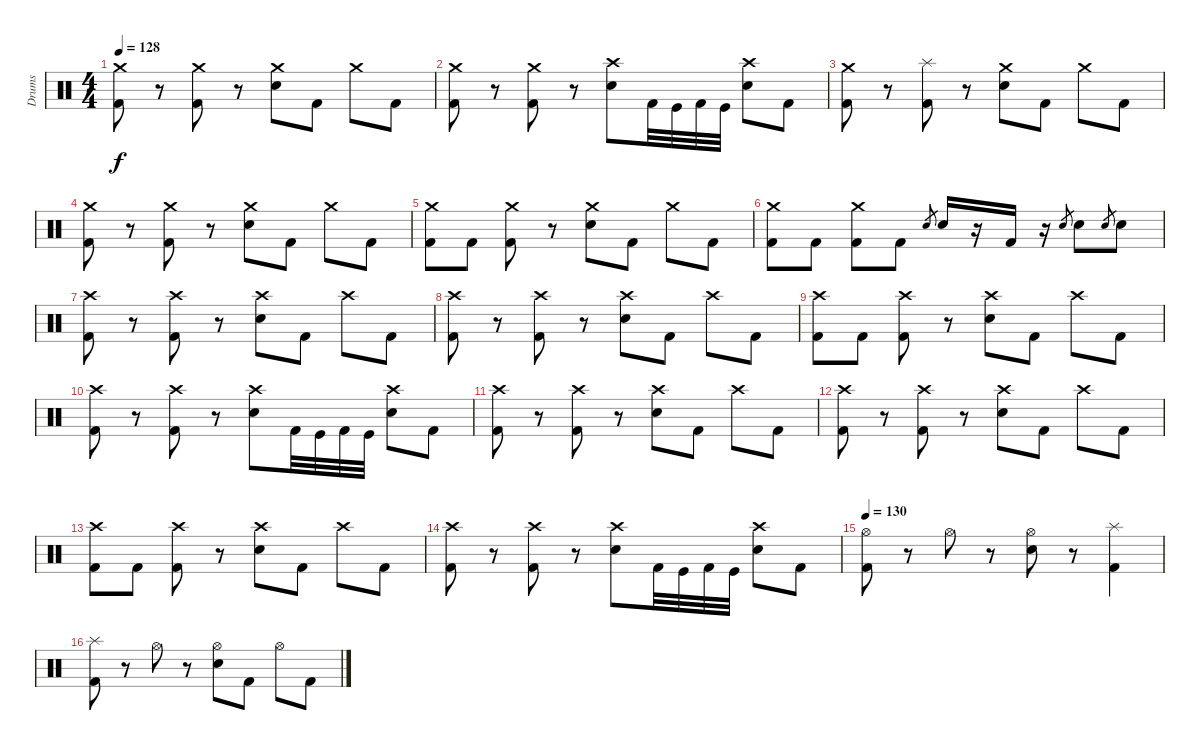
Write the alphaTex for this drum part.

\track ("Drums" "Drums") {instrument percussion}
\staff {score}
\articulation defaults
\ts (4 4)
\tempo 128
\clef neutral
\ks c
("Crash medium (hit)" "Kick (hit) 2").8{dy f} r.8 ("Crash medium (hit)" "Kick (hit) 2").8 r.8 ("Crash medium (hit)" "Electric Snare (hit)").8 "Kick (hit) 2".8 "Crash medium (hit)".8 "Kick (hit) 2".8 |
("Crash medium (hit)" "Kick (hit) 2").8 r.8 ("Crash medium (hit)" "Kick (hit) 2").8 r.8 ("Crash high (hit)" "Electric Snare (hit)").8 "Kick (hit) 2".32 "Kick (hit)".32 "Kick (hit) 2".32 "Kick (hit)".32 ("Crash high (hit)" "Electric Snare (hit)").8 "Kick (hit) 2".8 |
("Crash medium (hit)" "Kick (hit) 2").8 r.8 ("Splash (hit)" "Kick (hit) 2").8 r.8 ("Crash medium (hit)" "Electric Snare (hit)").8 "Kick (hit) 2".8 "Crash medium (hit)".8 "Kick (hit) 2".8 |
("Crash medium (hit)" "Kick (hit) 2").8 r.8 ("Crash medium (hit)" "Kick (hit) 2").8 r.8 ("Crash medium (hit)" "Electric Snare (hit)").8 "Kick (hit) 2".8 "Crash medium (hit)".8 "Kick (hit) 2".8 |
("Crash medium (hit)" "Kick (hit) 2").8 "Kick (hit) 2".8 ("Crash medium (hit)" "Kick (hit) 2").8 r.8 ("Crash medium (hit)" "Electric Snare (hit)").8 "Kick (hit) 2".8 "Crash medium (hit)".8 "Kick (hit) 2".8 |
("Crash medium (hit)" "Kick (hit) 2").8 "Kick (hit) 2".8 ("Crash medium (hit)" "Kick (hit) 2").8 "Kick (hit) 2".8 "Electric Snare (hit)".8{gr} "Electric Snare (hit)".16 r.16 "Kick (hit) 2".16 r.16 "Electric Snare (hit)".8{gr} "Electric Snare (hit)".8 "Electric Snare (hit)".8{gr} "Electric Snare (hit)".8 |
("Crash high (hit)" "Kick (hit) 2").8 r.8 ("Crash high (hit)" "Kick (hit) 2").8 r.8 ("Crash high (hit)" "Electric Snare (hit)").8 "Kick (hit) 2".8 "Crash high (hit)".8 "Kick (hit) 2".8 |
("Crash high (hit)" "Kick (hit) 2").8 r.8 ("Crash high (hit)" "Kick (hit) 2").8 r.8 ("Crash high (hit)" "Electric Snare (hit)").8 "Kick (hit) 2".8 "Crash high (hit)".8 "Kick (hit) 2".8 |
("Crash high (hit)" "Kick (hit) 2").8 "Kick (hit) 2".8 ("Crash high (hit)" "Kick (hit) 2").8 r.8 ("Crash high (hit)" "Electric Snare (hit)").8 "Kick (hit) 2".8 "Crash high (hit)".8 "Kick (hit) 2".8 |
("Crash high (hit)" "Kick (hit) 2").8 r.8 ("Crash high (hit)" "Kick (hit) 2").8 r.8 ("Crash high (hit)" "Electric Snare (hit)").8 "Kick (hit) 2".32 "Kick (hit)".32 "Kick (hit) 2".32 "Kick (hit)".32 ("Crash high (hit)" "Electric Snare (hit)").8 "Kick (hit) 2".8 |
("Crash high (hit)" "Kick (hit) 2").8 r.8 ("Crash high (hit)" "Kick (hit) 2").8 r.8 ("Crash high (hit)" "Electric Snare (hit)").8 "Kick (hit) 2".8 "Crash high (hit)".8 "Kick (hit) 2".8 |
("Crash high (hit)" "Kick (hit) 2").8 r.8 ("Crash high (hit)" "Kick (hit) 2").8 r.8 ("Crash high (hit)" "Electric Snare (hit)").8 "Kick (hit) 2".8 "Crash high (hit)".8 "Kick (hit) 2".8 |
("Crash high (hit)" "Kick (hit) 2").8 "Kick (hit) 2".8 ("Crash high (hit)" "Kick (hit) 2").8 r.8 ("Crash high (hit)" "Electric Snare (hit)").8 "Kick (hit) 2".8 "Crash high (hit)".8 "Kick (hit) 2".8 |
("Crash high (hit)" "Kick (hit) 2").8 r.8 ("Crash high (hit)" "Kick (hit) 2").8 r.8 ("Crash high (hit)" "Electric Snare (hit)").8 "Kick (hit) 2".32 "Kick (hit)".32 "Kick (hit) 2".32 "Kick (hit)".32 ("Crash high (hit)" "Electric Snare (hit)").8 "Kick (hit) 2".8 |
\tempo 130
("Hi-Hat (open)" "Kick (hit) 2").8 r.8 "Hi-Hat (open)".8 r.8 ("Hi-Hat (open)" "Electric Snare (hit)").8 r.8 ("Splash (hit)" "Kick (hit) 2").4 |
("Splash (hit)" "Kick (hit) 2").8 r.8 "Hi-Hat (open)".8 r.8 ("Hi-Hat (open)" "Electric Snare (hit)").8 "Kick (hit) 2".8 "Hi-Hat (open)".8 "Kick (hit) 2".8
